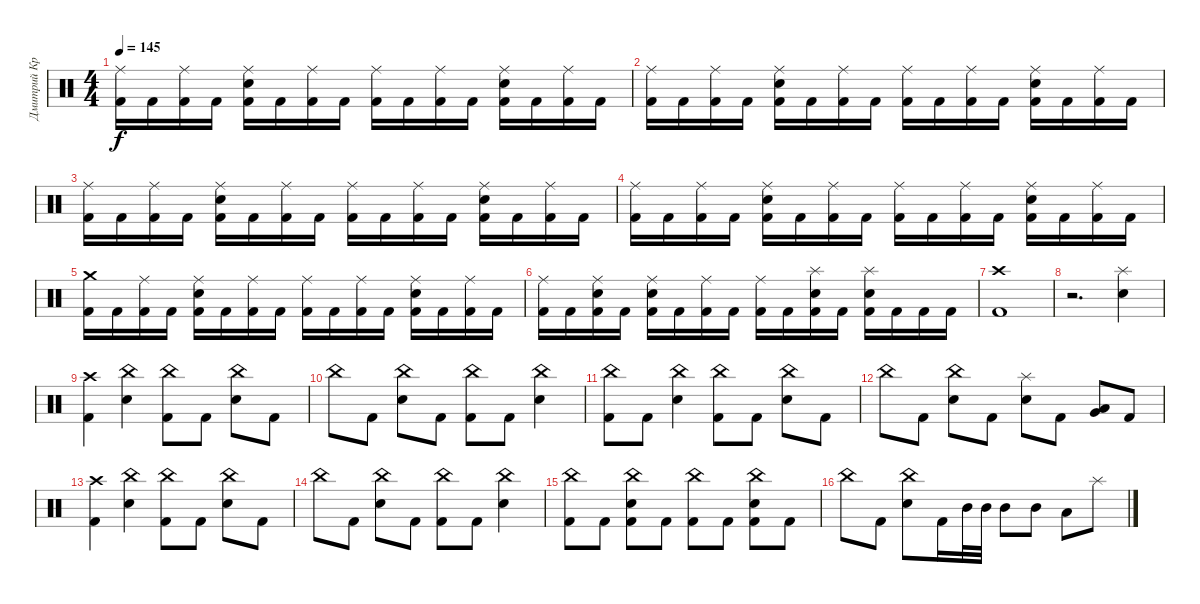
\track ("Дмитрий Кривенков" "Дмитрий Кр") {instrument percussion}
\staff {score}
\articulation defaults
\ts (4 4)
\tempo 145
\clef neutral
\ks c
("Ride (middle)" "Kick (hit) 2").16{dy f} "Kick (hit) 2".16 ("Ride (middle)" "Kick (hit) 2").16 "Kick (hit) 2".16 ("Ride (middle)" "Electric Snare (hit)" "Kick (hit) 2").16 "Kick (hit) 2".16 ("Ride (middle)" "Kick (hit) 2").16 "Kick (hit) 2".16 ("Ride (middle)" "Kick (hit) 2").16 "Kick (hit) 2".16 ("Ride (middle)" "Kick (hit) 2").16 "Kick (hit) 2".16 ("Ride (middle)" "Electric Snare (hit)" "Kick (hit) 2").16 "Kick (hit) 2".16 ("Ride (middle)" "Kick (hit) 2").16 "Kick (hit) 2".16 |
("Ride (middle)" "Kick (hit) 2").16 "Kick (hit) 2".16 ("Ride (middle)" "Kick (hit) 2").16 "Kick (hit) 2".16 ("Ride (middle)" "Electric Snare (hit)" "Kick (hit) 2").16 "Kick (hit) 2".16 ("Ride (middle)" "Kick (hit) 2").16 "Kick (hit) 2".16 ("Ride (middle)" "Kick (hit) 2").16 "Kick (hit) 2".16 ("Ride (middle)" "Kick (hit) 2").16 "Kick (hit) 2".16 ("Ride (middle)" "Electric Snare (hit)" "Kick (hit) 2").16 "Kick (hit) 2".16 ("Ride (middle)" "Kick (hit) 2").16 "Kick (hit) 2".16 |
("Ride (middle)" "Kick (hit) 2").16 "Kick (hit) 2".16 ("Ride (middle)" "Kick (hit) 2").16 "Kick (hit) 2".16 ("Ride (middle)" "Electric Snare (hit)" "Kick (hit) 2").16 "Kick (hit) 2".16 ("Ride (middle)" "Kick (hit) 2").16 "Kick (hit) 2".16 ("Ride (middle)" "Kick (hit) 2").16 "Kick (hit) 2".16 ("Ride (middle)" "Kick (hit) 2").16 "Kick (hit) 2".16 ("Ride (middle)" "Electric Snare (hit)" "Kick (hit) 2").16 "Kick (hit) 2".16 ("Ride (middle)" "Kick (hit) 2").16 "Kick (hit) 2".16 |
("Ride (middle)" "Kick (hit) 2").16 "Kick (hit) 2".16 ("Ride (middle)" "Kick (hit) 2").16 "Kick (hit) 2".16 ("Ride (middle)" "Electric Snare (hit)" "Kick (hit) 2").16 "Kick (hit) 2".16 ("Ride (middle)" "Kick (hit) 2").16 "Kick (hit) 2".16 ("Ride (middle)" "Kick (hit) 2").16 "Kick (hit) 2".16 ("Ride (middle)" "Kick (hit) 2").16 "Kick (hit) 2".16 ("Ride (middle)" "Electric Snare (hit)" "Kick (hit) 2").16 "Kick (hit) 2".16 ("Ride (middle)" "Kick (hit) 2").16 "Kick (hit) 2".16 |
("Crash medium (hit)" "Kick (hit) 2").16 "Kick (hit) 2".16 ("Ride (middle)" "Kick (hit) 2").16 "Kick (hit) 2".16 ("Ride (middle)" "Electric Snare (hit)" "Kick (hit) 2").16 "Kick (hit) 2".16 ("Ride (middle)" "Kick (hit) 2").16 "Kick (hit) 2".16 ("Ride (middle)" "Kick (hit) 2").16 "Kick (hit) 2".16 ("Ride (middle)" "Kick (hit) 2").16 "Kick (hit) 2".16 ("Ride (middle)" "Electric Snare (hit)" "Kick (hit) 2").16 "Kick (hit) 2".16 ("Ride (middle)" "Kick (hit) 2").16 "Kick (hit) 2".16 |
("Ride (middle)" "Kick (hit) 2").16 "Kick (hit) 2".16 ("Ride (middle)" "Electric Snare (hit)" "Kick (hit) 2").16 "Kick (hit) 2".16 ("Ride (middle)" "Electric Snare (hit)" "Kick (hit) 2").16 "Kick (hit) 2".16 ("Ride (middle)" "Kick (hit) 2").16 "Kick (hit) 2".16 ("Ride (middle)" "Kick (hit) 2").16 "Kick (hit) 2".16 ("Splash (hit)" "Electric Snare (hit)" "Kick (hit) 2").16 "Kick (hit) 2".16 ("Splash (hit)" "Electric Snare (hit)" "Kick (hit) 2").16 "Kick (hit) 2".16 "Kick (hit) 2".16 "Kick (hit) 2".16 |
("Crash high (hit)" "Kick (hit) 2").1 |
r.2{d} ("Splash (hit)" "Electric Snare (hit)").4 |
("Crash high (hit)" "Kick (hit) 2").4 ("China (hit)" "Electric Snare (hit)").4 ("China (hit)" "Kick (hit) 2").8 "Kick (hit) 2".8 ("China (hit)" "Electric Snare (hit)").8 "Kick (hit) 2".8 |
"China (hit)".8 "Kick (hit) 2".8 ("China (hit)" "Electric Snare (hit)").8 "Kick (hit) 2".8 ("China (hit)" "Kick (hit) 2").8 "Kick (hit) 2".8 ("China (hit)" "Electric Snare (hit)").4 |
("China (hit)" "Kick (hit) 2").8 "Kick (hit) 2".8 ("China (hit)" "Electric Snare (hit)").4 ("China (hit)" "Kick (hit) 2").8 "Kick (hit) 2".8 ("China (hit)" "Electric Snare (hit)").8 "Kick (hit) 2".8 |
"China (hit)".8 "Kick (hit) 2".8 ("China (hit)" "Electric Snare (hit)").8 "Kick (hit) 2".8 ("Splash (hit)" "Electric Snare (hit)").8 "Kick (hit) 2".8 ("Very Low Tom (hit)" "Low Floor Tom (hit)").8 "Kick (hit) 2".8 |
("Crash high (hit)" "Kick (hit) 2").4 ("China (hit)" "Electric Snare (hit)").4 ("China (hit)" "Kick (hit) 2").8 "Kick (hit) 2".8 ("China (hit)" "Electric Snare (hit)").8 "Kick (hit) 2".8 |
"China (hit)".8 "Kick (hit) 2".8 ("China (hit)" "Electric Snare (hit)").8 "Kick (hit) 2".8 ("China (hit)" "Kick (hit) 2").8 "Kick (hit) 2".8 ("China (hit)" "Electric Snare (hit)").4 |
("China (hit)" "Kick (hit) 2").8 "Kick (hit) 2".8 ("China (hit)" "Electric Snare (hit)" "Kick (hit) 2").8 "Kick (hit) 2".8 ("China (hit)" "Kick (hit) 2").8 "Kick (hit) 2".8 ("China (hit)" "Electric Snare (hit)" "Kick (hit) 2").8 "Kick (hit) 2".8 |
"China (hit)".8 "Kick (hit) 2".8 ("China (hit)" "Electric Snare (hit)").8 "Kick (hit) 2".16 "Mid Tom (hit)".32 "Mid Tom (hit)".32 "Mid Tom (hit)".8 "Mid Tom (hit)".8 "Low Tom (hit)".8 "Splash (hit)".8
